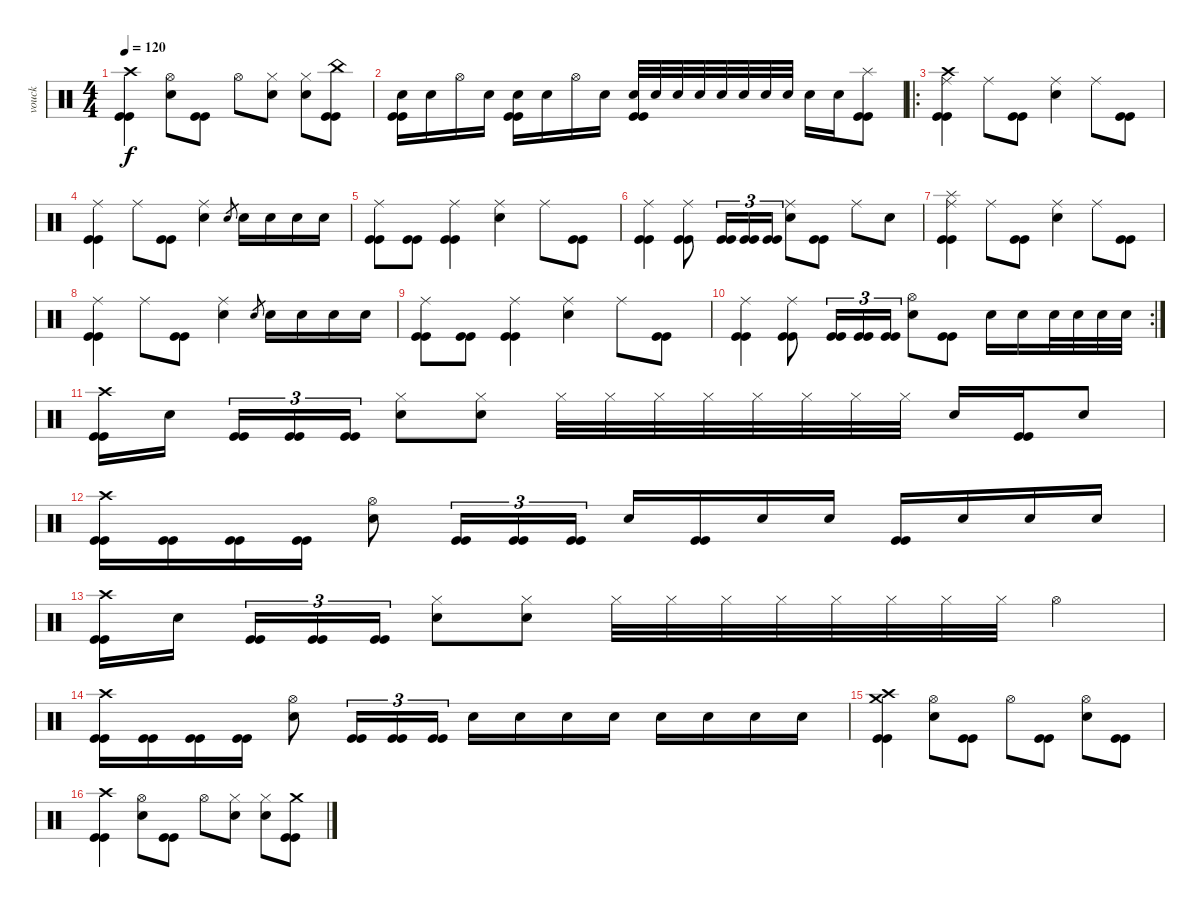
\track ("vouck" "vouck") {instrument percussion}
\staff {score}
\articulation defaults
\ts (4 4)
\tempo 120
\clef neutral
\ks c
("Crash high (hit)" "Kick (hit)" "Kick (hit)").4{dy f} ("Hi-Hat (open)" "Electric Snare (hit)").8 ("Kick (hit)" "Kick (hit)").8 "Hi-Hat (open)".8 ("Hi-Hat (closed)" "Electric Snare (hit)").8 ("Hi-Hat (closed)" "Electric Snare (hit)").8 ("China (hit)" "Kick (hit)" "Kick (hit)").8 |
("Electric Snare (hit)" "Kick (hit)" "Kick (hit)").16 "Electric Snare (hit)".16 "Hi-Hat (open)".16 "Electric Snare (hit)".16 ("Electric Snare (hit)" "Kick (hit)" "Kick (hit)").16 "Electric Snare (hit)".16 "Hi-Hat (open)".16 "Electric Snare (hit)".16 ("Electric Snare (hit)" "Kick (hit)" "Kick (hit)").32 "Electric Snare (hit)".32 "Electric Snare (hit)".32 "Electric Snare (hit)".32 "Electric Snare (hit)".32 "Electric Snare (hit)".32 "Electric Snare (hit)".32 "Electric Snare (hit)".32 "Electric Snare (hit)".16 "Electric Snare (hit)".16 ("Splash (hit)" "Kick (hit)" "Kick (hit)").8 |
\ro
("Crash high (hit)" "Ride (middle)" "Kick (hit)" "Kick (hit)").4 "Ride (middle)".8 ("Kick (hit)" "Kick (hit)").8 ("Ride (middle)" "Electric Snare (hit)").4 "Ride (middle)".8 ("Kick (hit)" "Kick (hit)").8 |
("Ride (middle)" "Kick (hit)" "Kick (hit)").4 "Ride (middle)".8 ("Kick (hit)" "Kick (hit)").8 ("Ride (middle)" "Electric Snare (hit)").4 "Electric Snare (hit)".8{gr} "Electric Snare (hit)".16 "Electric Snare (hit)".16 "Electric Snare (hit)".16 "Electric Snare (hit)".16 |
("Ride (middle)" "Kick (hit)" "Kick (hit)").8 ("Kick (hit)" "Kick (hit)").8 ("Ride (middle)" "Kick (hit)" "Kick (hit)").4 ("Ride (middle)" "Electric Snare (hit)").4 "Ride (middle)".8 ("Kick (hit)" "Kick (hit)").8 |
("Ride (middle)" "Kick (hit)" "Kick (hit)").4 ("Ride (middle)" "Kick (hit)" "Kick (hit)").8 ("Kick (hit)" "Kick (hit)").16{tu (3 2)} ("Kick (hit)" "Kick (hit)").16{tu (3 2)} ("Kick (hit)" "Kick (hit)").16{tu (3 2)} ("Ride (middle)" "Electric Snare (hit)").8 ("Kick (hit)" "Kick (hit)").8 "Ride (middle)".8 "Electric Snare (hit)".8 |
("Splash (hit)" "Ride (middle)" "Kick (hit)" "Kick (hit)").4 "Ride (middle)".8 ("Kick (hit)" "Kick (hit)").8 ("Ride (middle)" "Electric Snare (hit)").4 "Ride (middle)".8 ("Kick (hit)" "Kick (hit)").8 |
("Ride (middle)" "Kick (hit)" "Kick (hit)").4 "Ride (middle)".8 ("Kick (hit)" "Kick (hit)").8 ("Ride (middle)" "Electric Snare (hit)").4 "Electric Snare (hit)".8{gr} "Electric Snare (hit)".16 "Electric Snare (hit)".16 "Electric Snare (hit)".16 "Electric Snare (hit)".16 |
("Ride (middle)" "Kick (hit)" "Kick (hit)").8 ("Kick (hit)" "Kick (hit)").8 ("Ride (middle)" "Kick (hit)" "Kick (hit)").4 ("Ride (middle)" "Electric Snare (hit)").4 "Ride (middle)".8 ("Kick (hit)" "Kick (hit)").8 |
\rc 2
("Ride (middle)" "Kick (hit)" "Kick (hit)").4 ("Ride (middle)" "Kick (hit)" "Kick (hit)").8 ("Kick (hit)" "Kick (hit)").16{tu (3 2)} ("Kick (hit)" "Kick (hit)").16{tu (3 2)} ("Kick (hit)" "Kick (hit)").16{tu (3 2)} ("Hi-Hat (open)" "Electric Snare (hit)").8 ("Kick (hit)" "Kick (hit)").8 "Electric Snare (hit)".16 "Electric Snare (hit)".16 "Electric Snare (hit)".32 "Electric Snare (hit)".32 "Electric Snare (hit)".32 "Electric Snare (hit)".32 |
("Crash high (hit)" "Kick (hit)" "Kick (hit)").16 "Electric Snare (hit)".16 ("Kick (hit)" "Kick (hit)").16{tu (3 2)} ("Kick (hit)" "Kick (hit)").16{tu (3 2)} ("Kick (hit)" "Kick (hit)").16{tu (3 2)} ("Hi-Hat (closed)" "Electric Snare (hit)").8 ("Hi-Hat (closed)" "Electric Snare (hit)").8 "Hi-Hat (closed)".32 "Hi-Hat (closed)".32 "Hi-Hat (closed)".32 "Hi-Hat (closed)".32 "Hi-Hat (closed)".32 "Hi-Hat (closed)".32 "Hi-Hat (closed)".32 "Hi-Hat (closed)".32 "Electric Snare (hit)".16 ("Kick (hit)" "Kick (hit)").16 "Electric Snare (hit)".8 |
("Crash high (hit)" "Kick (hit)" "Kick (hit)").16 ("Kick (hit)" "Kick (hit)").16 ("Kick (hit)" "Kick (hit)").16 ("Kick (hit)" "Kick (hit)").16 ("Hi-Hat (open)" "Electric Snare (hit)").8 ("Kick (hit)" "Kick (hit)").16{tu (3 2)} ("Kick (hit)" "Kick (hit)").16{tu (3 2)} ("Kick (hit)" "Kick (hit)").16{tu (3 2)} "Electric Snare (hit)".16 ("Kick (hit)" "Kick (hit)").16 "Electric Snare (hit)".16 "Electric Snare (hit)".16 ("Kick (hit)" "Kick (hit)").16 "Electric Snare (hit)".16 "Electric Snare (hit)".16 "Electric Snare (hit)".16 |
("Crash high (hit)" "Kick (hit)" "Kick (hit)").16 "Electric Snare (hit)".16 ("Kick (hit)" "Kick (hit)").16{tu (3 2)} ("Kick (hit)" "Kick (hit)").16{tu (3 2)} ("Kick (hit)" "Kick (hit)").16{tu (3 2)} ("Hi-Hat (closed)" "Electric Snare (hit)").8 ("Hi-Hat (closed)" "Electric Snare (hit)").8 "Hi-Hat (closed)".32 "Hi-Hat (closed)".32 "Hi-Hat (closed)".32 "Hi-Hat (closed)".32 "Hi-Hat (closed)".32 "Hi-Hat (closed)".32 "Hi-Hat (closed)".32 "Hi-Hat (closed)".32 "Hi-Hat (open)".4 |
("Crash high (hit)" "Kick (hit)" "Kick (hit)").16 ("Kick (hit)" "Kick (hit)").16 ("Kick (hit)" "Kick (hit)").16 ("Kick (hit)" "Kick (hit)").16 ("Hi-Hat (open)" "Electric Snare (hit)").8 ("Kick (hit)" "Kick (hit)").16{tu (3 2)} ("Kick (hit)" "Kick (hit)").16{tu (3 2)} ("Kick (hit)" "Kick (hit)").16{tu (3 2)} "Electric Snare (hit)".16 "Electric Snare (hit)".16 "Electric Snare (hit)".16 "Electric Snare (hit)".16 "Electric Snare (hit)".16 "Electric Snare (hit)".16 "Electric Snare (hit)".16 "Electric Snare (hit)".16 |
("Crash medium (hit)" "Crash high (hit)" "Kick (hit)" "Kick (hit)").4 ("Hi-Hat (open)" "Electric Snare (hit)").8 ("Kick (hit)" "Kick (hit)").8 "Hi-Hat (open)".8 ("Kick (hit)" "Kick (hit)").8 ("Hi-Hat (open)" "Electric Snare (hit)").8 ("Kick (hit)" "Kick (hit)").8 |
("Crash high (hit)" "Kick (hit)" "Kick (hit)").4 ("Hi-Hat (open)" "Electric Snare (hit)").8 ("Kick (hit)" "Kick (hit)").8 "Hi-Hat (open)".8 ("Hi-Hat (closed)" "Electric Snare (hit)").8 ("Hi-Hat (closed)" "Electric Snare (hit)").8 ("Crash medium (hit)" "Kick (hit)" "Kick (hit)").8
